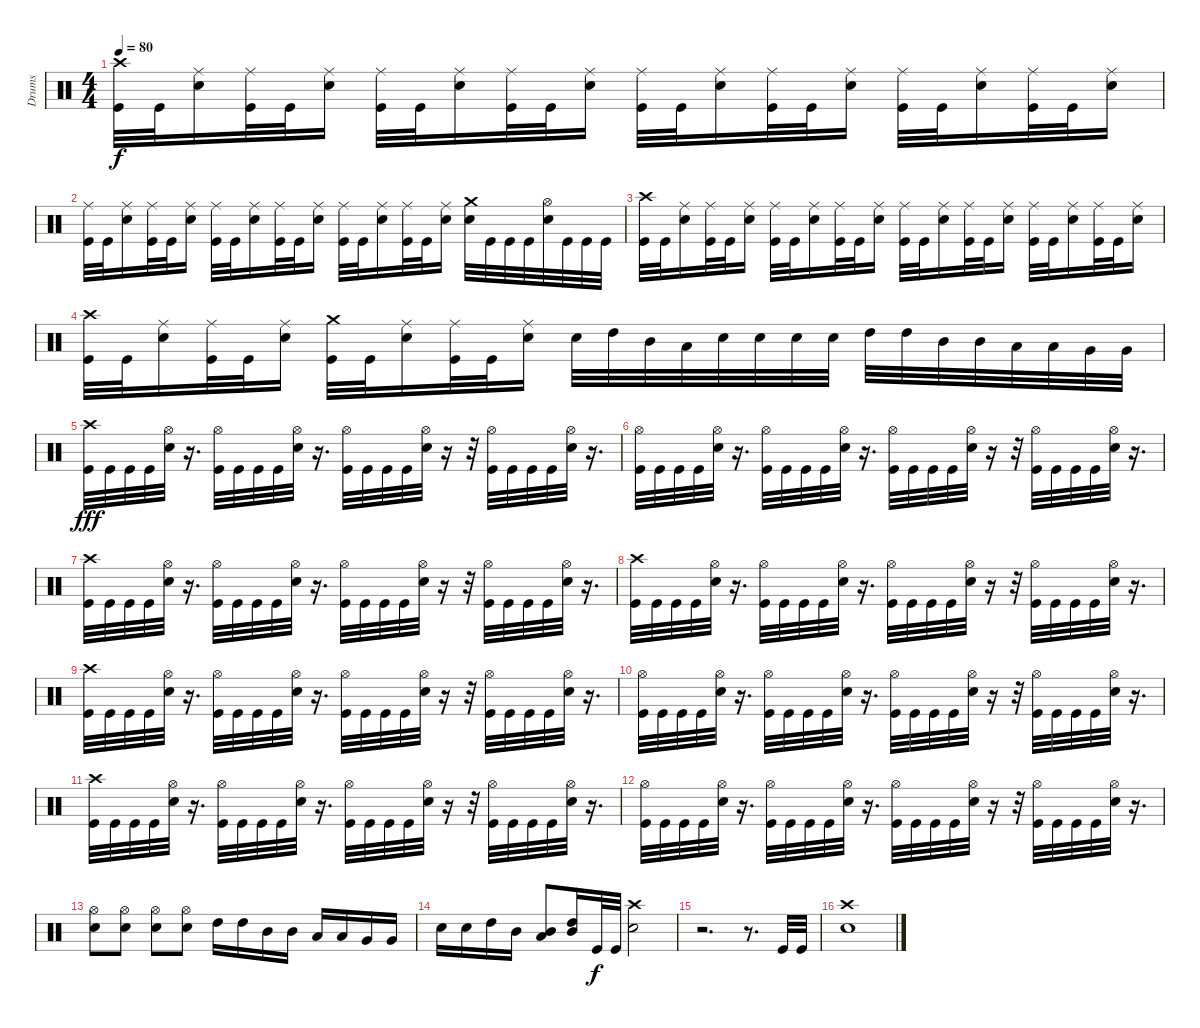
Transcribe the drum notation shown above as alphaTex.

\track ("Drums" "Drums") {instrument percussion}
\staff {score}
\articulation defaults
\ts (4 4)
\tempo 80
\clef neutral
\ks c
("Crash high (hit)" "Kick (hit)").32{dy f} "Kick (hit)".32 ("Ride (middle)" "Electric Snare (hit)").16 ("Ride (middle)" "Kick (hit)").32 "Kick (hit)".32 ("Ride (middle)" "Electric Snare (hit)").16 ("Ride (middle)" "Kick (hit)").32 "Kick (hit)".32 ("Ride (middle)" "Electric Snare (hit)").16 ("Ride (middle)" "Kick (hit)").32 "Kick (hit)".32 ("Ride (middle)" "Electric Snare (hit)").16 ("Ride (middle)" "Kick (hit)").32 "Kick (hit)".32 ("Ride (middle)" "Electric Snare (hit)").16 ("Ride (middle)" "Kick (hit)").32 "Kick (hit)".32 ("Ride (middle)" "Electric Snare (hit)").16 ("Ride (middle)" "Kick (hit)").32 "Kick (hit)".32 ("Ride (middle)" "Electric Snare (hit)").16 ("Ride (middle)" "Kick (hit)").32 "Kick (hit)".32 ("Ride (middle)" "Electric Snare (hit)").16 |
("Ride (middle)" "Kick (hit)").32 "Kick (hit)".32 ("Ride (middle)" "Electric Snare (hit)").16 ("Ride (middle)" "Kick (hit)").32 "Kick (hit)".32 ("Ride (middle)" "Electric Snare (hit)").16 ("Ride (middle)" "Kick (hit)").32 "Kick (hit)".32 ("Ride (middle)" "Electric Snare (hit)").16 ("Ride (middle)" "Kick (hit)").32 "Kick (hit)".32 ("Ride (middle)" "Electric Snare (hit)").16 ("Ride (middle)" "Kick (hit)").32 "Kick (hit)".32 ("Ride (middle)" "Electric Snare (hit)").16 ("Ride (middle)" "Kick (hit)").32 "Kick (hit)".32 ("Ride (middle)" "Electric Snare (hit)").16 ("Crash medium (hit)" "Electric Snare (hit)").32 "Kick (hit)".32 "Kick (hit)".32 "Kick (hit)".32 ("Hi-Hat (open)" "Electric Snare (hit)").32 "Kick (hit)".32 "Kick (hit)".32 "Kick (hit)".32 |
("Crash high (hit)" "Kick (hit)").32 "Kick (hit)".32 ("Ride (middle)" "Electric Snare (hit)").16 ("Ride (middle)" "Kick (hit)").32 "Kick (hit)".32 ("Ride (middle)" "Electric Snare (hit)").16 ("Ride (middle)" "Kick (hit)").32 "Kick (hit)".32 ("Ride (middle)" "Electric Snare (hit)").16 ("Ride (middle)" "Kick (hit)").32 "Kick (hit)".32 ("Ride (middle)" "Electric Snare (hit)").16 ("Ride (middle)" "Kick (hit)").32 "Kick (hit)".32 ("Ride (middle)" "Electric Snare (hit)").16 ("Ride (middle)" "Kick (hit)").32 "Kick (hit)".32 ("Ride (middle)" "Electric Snare (hit)").16 ("Ride (middle)" "Kick (hit)").32 "Kick (hit)".32 ("Ride (middle)" "Electric Snare (hit)").16 ("Ride (middle)" "Kick (hit)").32 "Kick (hit)".32 ("Ride (middle)" "Electric Snare (hit)").16 |
("Crash high (hit)" "Kick (hit)").32 "Kick (hit)".32 ("Ride (middle)" "Electric Snare (hit)").16 ("Ride (middle)" "Kick (hit)").32 "Kick (hit)".32 ("Ride (middle)" "Electric Snare (hit)").16 ("Crash medium (hit)" "Kick (hit)").32 "Kick (hit)".32 ("Ride (middle)" "Electric Snare (hit)").16 ("Ride (middle)" "Kick (hit)").32 "Kick (hit)".32 ("Ride (middle)" "Electric Snare (hit)").16 "Electric Snare (hit)".32 "High Tom (hit)".32 "Mid Tom (hit)".32 "Low Tom (hit)".32 "Electric Snare (hit)".32 "Electric Snare (hit)".32 "Electric Snare (hit)".32 "Electric Snare (hit)".32 "High Tom (hit)".32 "High Tom (hit)".32 "Mid Tom (hit)".32 "Mid Tom (hit)".32 "Low Tom (hit)".32 "Low Tom (hit)".32 "Very Low Tom (hit)".32 "Very Low Tom (hit)".32 |
("Crash high (hit)" "Kick (hit)").32{dy fff} "Kick (hit)".32 "Kick (hit)".32 "Kick (hit)".32 ("Hi-Hat (open)" "Electric Snare (hit)").32 r.16{d} ("Hi-Hat (open)" "Kick (hit)").32 "Kick (hit)".32 "Kick (hit)".32 "Kick (hit)".32 ("Hi-Hat (open)" "Electric Snare (hit)").32 r.16{d} ("Hi-Hat (open)" "Kick (hit)").32 "Kick (hit)".32 "Kick (hit)".32 "Kick (hit)".32 ("Hi-Hat (open)" "Electric Snare (hit)").32 r.16 r.32 ("Hi-Hat (open)" "Kick (hit)").32 "Kick (hit)".32 "Kick (hit)".32 "Kick (hit)".32 ("Hi-Hat (open)" "Electric Snare (hit)").32 r.16{d} |
("Hi-Hat (open)" "Kick (hit)").32 "Kick (hit)".32 "Kick (hit)".32 "Kick (hit)".32 ("Hi-Hat (open)" "Electric Snare (hit)").32 r.16{d} ("Hi-Hat (open)" "Kick (hit)").32 "Kick (hit)".32 "Kick (hit)".32 "Kick (hit)".32 ("Hi-Hat (open)" "Electric Snare (hit)").32 r.16{d} ("Hi-Hat (open)" "Kick (hit)").32 "Kick (hit)".32 "Kick (hit)".32 "Kick (hit)".32 ("Hi-Hat (open)" "Electric Snare (hit)").32 r.16 r.32 ("Hi-Hat (open)" "Kick (hit)").32 "Kick (hit)".32 "Kick (hit)".32 "Kick (hit)".32 ("Hi-Hat (open)" "Electric Snare (hit)").32 r.16{d} |
("Crash high (hit)" "Kick (hit)").32 "Kick (hit)".32 "Kick (hit)".32 "Kick (hit)".32 ("Hi-Hat (open)" "Electric Snare (hit)").32 r.16{d} ("Hi-Hat (open)" "Kick (hit)").32 "Kick (hit)".32 "Kick (hit)".32 "Kick (hit)".32 ("Hi-Hat (open)" "Electric Snare (hit)").32 r.16{d} ("Hi-Hat (open)" "Kick (hit)").32 "Kick (hit)".32 "Kick (hit)".32 "Kick (hit)".32 ("Hi-Hat (open)" "Electric Snare (hit)").32 r.16 r.32 ("Hi-Hat (open)" "Kick (hit)").32 "Kick (hit)".32 "Kick (hit)".32 "Kick (hit)".32 ("Hi-Hat (open)" "Electric Snare (hit)").32 r.16{d} |
("Crash high (hit)" "Kick (hit)").32 "Kick (hit)".32 "Kick (hit)".32 "Kick (hit)".32 ("Hi-Hat (open)" "Electric Snare (hit)").32 r.16{d} ("Hi-Hat (open)" "Kick (hit)").32 "Kick (hit)".32 "Kick (hit)".32 "Kick (hit)".32 ("Hi-Hat (open)" "Electric Snare (hit)").32 r.16{d} ("Hi-Hat (open)" "Kick (hit)").32 "Kick (hit)".32 "Kick (hit)".32 "Kick (hit)".32 ("Hi-Hat (open)" "Electric Snare (hit)").32 r.16 r.32 ("Hi-Hat (open)" "Kick (hit)").32 "Kick (hit)".32 "Kick (hit)".32 "Kick (hit)".32 ("Hi-Hat (open)" "Electric Snare (hit)").32 r.16{d} |
("Crash high (hit)" "Kick (hit)").32 "Kick (hit)".32 "Kick (hit)".32 "Kick (hit)".32 ("Hi-Hat (open)" "Electric Snare (hit)").32 r.16{d} ("Hi-Hat (open)" "Kick (hit)").32 "Kick (hit)".32 "Kick (hit)".32 "Kick (hit)".32 ("Hi-Hat (open)" "Electric Snare (hit)").32 r.16{d} ("Hi-Hat (open)" "Kick (hit)").32 "Kick (hit)".32 "Kick (hit)".32 "Kick (hit)".32 ("Hi-Hat (open)" "Electric Snare (hit)").32 r.16 r.32 ("Hi-Hat (open)" "Kick (hit)").32 "Kick (hit)".32 "Kick (hit)".32 "Kick (hit)".32 ("Hi-Hat (open)" "Electric Snare (hit)").32 r.16{d} |
("Hi-Hat (open)" "Kick (hit)").32 "Kick (hit)".32 "Kick (hit)".32 "Kick (hit)".32 ("Hi-Hat (open)" "Electric Snare (hit)").32 r.16{d} ("Hi-Hat (open)" "Kick (hit)").32 "Kick (hit)".32 "Kick (hit)".32 "Kick (hit)".32 ("Hi-Hat (open)" "Electric Snare (hit)").32 r.16{d} ("Hi-Hat (open)" "Kick (hit)").32 "Kick (hit)".32 "Kick (hit)".32 "Kick (hit)".32 ("Hi-Hat (open)" "Electric Snare (hit)").32 r.16 r.32 ("Hi-Hat (open)" "Kick (hit)").32 "Kick (hit)".32 "Kick (hit)".32 "Kick (hit)".32 ("Hi-Hat (open)" "Electric Snare (hit)").32 r.16{d} |
("Crash high (hit)" "Kick (hit)").32 "Kick (hit)".32 "Kick (hit)".32 "Kick (hit)".32 ("Hi-Hat (open)" "Electric Snare (hit)").32 r.16{d} ("Hi-Hat (open)" "Kick (hit)").32 "Kick (hit)".32 "Kick (hit)".32 "Kick (hit)".32 ("Hi-Hat (open)" "Electric Snare (hit)").32 r.16{d} ("Hi-Hat (open)" "Kick (hit)").32 "Kick (hit)".32 "Kick (hit)".32 "Kick (hit)".32 ("Hi-Hat (open)" "Electric Snare (hit)").32 r.16 r.32 ("Hi-Hat (open)" "Kick (hit)").32 "Kick (hit)".32 "Kick (hit)".32 "Kick (hit)".32 ("Hi-Hat (open)" "Electric Snare (hit)").32 r.16{d} |
("Hi-Hat (open)" "Kick (hit)").32 "Kick (hit)".32 "Kick (hit)".32 "Kick (hit)".32 ("Hi-Hat (open)" "Electric Snare (hit)").32 r.16{d} ("Hi-Hat (open)" "Kick (hit)").32 "Kick (hit)".32 "Kick (hit)".32 "Kick (hit)".32 ("Hi-Hat (open)" "Electric Snare (hit)").32 r.16{d} ("Hi-Hat (open)" "Kick (hit)").32 "Kick (hit)".32 "Kick (hit)".32 "Kick (hit)".32 ("Hi-Hat (open)" "Electric Snare (hit)").32 r.16 r.32 ("Hi-Hat (open)" "Kick (hit)").32 "Kick (hit)".32 "Kick (hit)".32 "Kick (hit)".32 ("Hi-Hat (open)" "Electric Snare (hit)").32 r.16{d} |
("Hi-Hat (open)" "Electric Snare (hit)").8 ("Electric Snare (hit)" "Hi-Hat (open)").8 ("Hi-Hat (open)" "Electric Snare (hit)").8 ("Electric Snare (hit)" "Hi-Hat (open)").8 "High Tom (hit)".16 "High Tom (hit)".16 "Mid Tom (hit)".16 "Mid Tom (hit)".16 "Low Tom (hit)".16 "Low Tom (hit)".16 "Very Low Tom (hit)".16 "Very Low Tom (hit)".16 |
"Electric Snare (hit)".16 "Electric Snare (hit)".16 "High Tom (hit)".16 "Mid Tom (hit)".16 ("Mid Tom (hit)" "Low Tom (hit)").8 ("Mid Tom (hit)" "High Tom (hit)").16 "Kick (hit)".32{dy f} "Kick (hit)".32 ("Electric Snare (hit)" "Crash high (hit)").2 |
r.2{d} r.8{d} "Kick (hit)".32 "Kick (hit)".32 |
("Crash high (hit)" "Electric Snare (hit)").1
